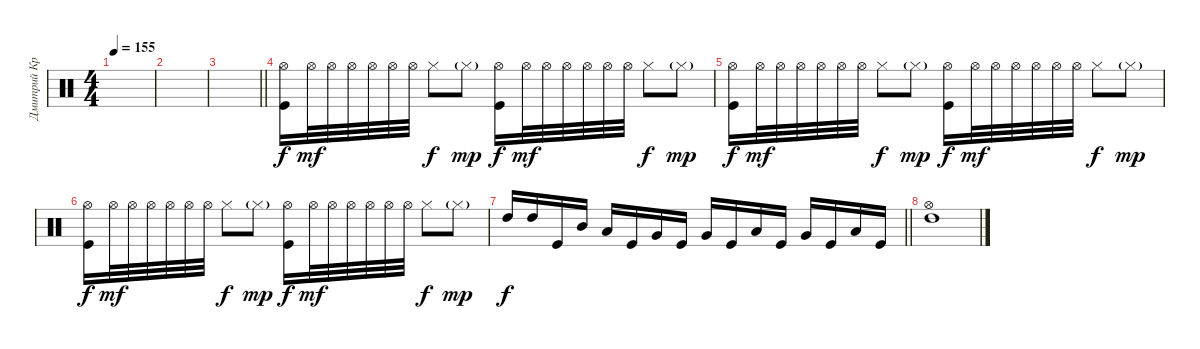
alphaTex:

\track ("Дмитрий Кривенков" "Дмитрий Кр") {instrument percussion}
\staff {score}
\articulation defaults
\ts (4 4)
\tempo 155
\clef neutral
\ks c
|
|
\barLineRight lightlight
|
("Hi-Hat (open)" "Kick (hit)").16 "Hi-Hat (open)".32{dy mf} "Hi-Hat (open)".32 "Hi-Hat (open)".32 "Hi-Hat (open)".32 "Hi-Hat (open)".32 "Hi-Hat (open)".32 "Hi-Hat (closed)".8{dy f} "Hi-Hat (closed)"{g}.8{dy mp} ("Hi-Hat (open)" "Kick (hit)").16{dy f} "Hi-Hat (open)".32{dy mf} "Hi-Hat (open)".32 "Hi-Hat (open)".32 "Hi-Hat (open)".32 "Hi-Hat (open)".32 "Hi-Hat (open)".32 "Hi-Hat (closed)".8{dy f} "Hi-Hat (closed)"{g}.8{dy mp} |
("Hi-Hat (open)" "Kick (hit)").16{dy f} "Hi-Hat (open)".32{dy mf} "Hi-Hat (open)".32 "Hi-Hat (open)".32 "Hi-Hat (open)".32 "Hi-Hat (open)".32 "Hi-Hat (open)".32 "Hi-Hat (closed)".8{dy f} "Hi-Hat (closed)"{g}.8{dy mp} ("Hi-Hat (open)" "Kick (hit)").16{dy f} "Hi-Hat (open)".32{dy mf} "Hi-Hat (open)".32 "Hi-Hat (open)".32 "Hi-Hat (open)".32 "Hi-Hat (open)".32 "Hi-Hat (open)".32 "Hi-Hat (closed)".8{dy f} "Hi-Hat (closed)"{g}.8{dy mp} |
("Hi-Hat (open)" "Kick (hit)").16{dy f} "Hi-Hat (open)".32{dy mf} "Hi-Hat (open)".32 "Hi-Hat (open)".32 "Hi-Hat (open)".32 "Hi-Hat (open)".32 "Hi-Hat (open)".32 "Hi-Hat (closed)".8{dy f} "Hi-Hat (closed)"{g}.8{dy mp} ("Hi-Hat (open)" "Kick (hit)").16{dy f} "Hi-Hat (open)".32{dy mf} "Hi-Hat (open)".32 "Hi-Hat (open)".32 "Hi-Hat (open)".32 "Hi-Hat (open)".32 "Hi-Hat (open)".32 "Hi-Hat (closed)".8{dy f} "Hi-Hat (closed)"{g}.8{dy mp} |
\barLineRight lightlight "High Tom (hit)".16{dy f} "High Tom (hit)".16 "Kick (hit)".16 "Mid Tom (hit)".16 "Low Tom (hit)".16 "Kick (hit)".16 "Very Low Tom (hit)".16 "Kick (hit)".16 "Very Low Tom (hit)".16 "Kick (hit)".16 "Low Tom (hit)".16 "Kick (hit)".16 "Very Low Tom (hit)".16 "Kick (hit)".16 "Low Floor Tom (hit)".16 "Kick (hit)".16
|
("Hi-Hat (open)" "High Tom (hit)").1
